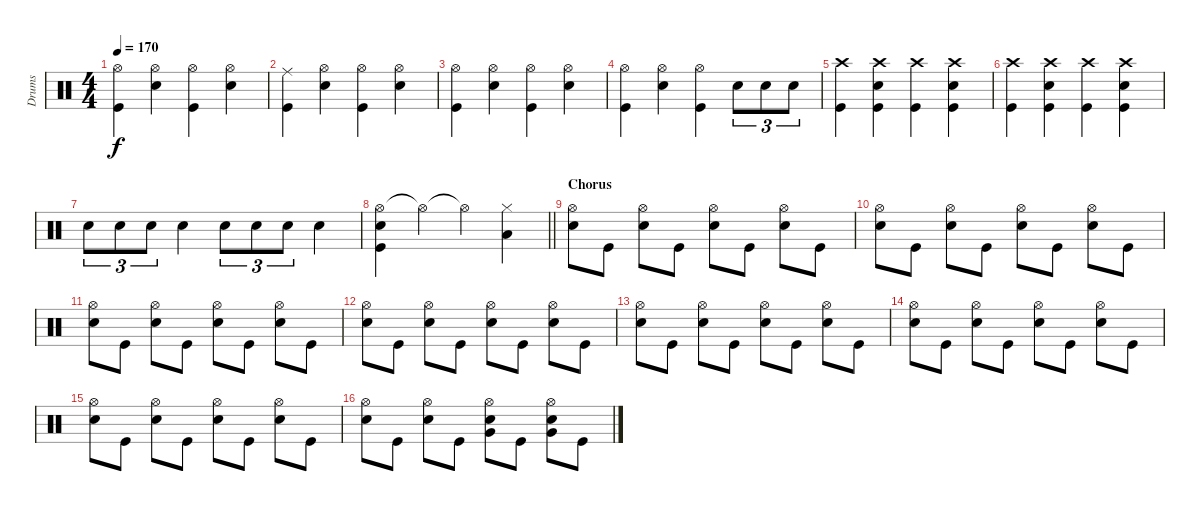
\track ("Drums" "Drums") {instrument percussion}
\staff {score}
\articulation defaults
\ts (4 4)
\tempo 170
\clef neutral
\ks c
("Hi-Hat (open)" "Kick (hit)").4{dy f} ("Hi-Hat (open)" "Snare (hit) 2").4 ("Hi-Hat (open)" "Kick (hit)").4 ("Hi-Hat (open)" "Snare (hit) 2").4 |
("Ride (middle)" "Kick (hit)").4 ("Hi-Hat (open)" "Snare (hit) 2").4 ("Hi-Hat (open)" "Kick (hit)").4 ("Hi-Hat (open)" "Snare (hit) 2").4 |
("Hi-Hat (open)" "Kick (hit)").4 ("Hi-Hat (open)" "Snare (hit) 2").4 ("Hi-Hat (open)" "Kick (hit)").4 ("Hi-Hat (open)" "Snare (hit) 2").4 |
("Hi-Hat (open)" "Kick (hit)").4 ("Hi-Hat (open)" "Snare (hit) 2").4 ("Hi-Hat (open)" "Kick (hit)").4 "Snare (hit) 2".8{tu (3 2)} "Snare (hit) 2".8{tu (3 2)} "Snare (hit) 2".8{tu (3 2)} |
("Crash high (hit)" "Kick (hit)").4 ("Crash high (hit)" "Snare (hit) 2" "Kick (hit)").4 ("Crash high (hit)" "Kick (hit)").4 ("Crash high (hit)" "Snare (hit) 2" "Kick (hit)").4 |
("Crash high (hit)" "Kick (hit)").4 ("Crash high (hit)" "Snare (hit) 2" "Kick (hit)").4 ("Crash high (hit)" "Kick (hit)").4 ("Crash high (hit)" "Snare (hit) 2" "Kick (hit)").4 |
"Snare (hit) 2".8{tu (3 2)} "Snare (hit) 2".8{tu (3 2)} "Snare (hit) 2".8{tu (3 2)} "Snare (hit) 2".4 "Snare (hit) 2".8{tu (3 2)} "Snare (hit) 2".8{tu (3 2)} "Snare (hit) 2".8{tu (3 2)} "Snare (hit) 2".4 |
\barLineRight lightlight
("Hi-Hat (open)" "Snare (hit) 2" "Kick (hit)").4{volume 16} "Hi-Hat (open)"{t}.4 "Hi-Hat (open)"{t}.4 ("Hi-Hat (closed)" "Low Tom (hit)").4 |
\section ("" "Chorus")
("Hi-Hat (open)" "Snare (hit) 2").8{volume 13} "Kick (hit)".8 ("Hi-Hat (open)" "Snare (hit) 2").8 "Kick (hit)".8 ("Hi-Hat (open)" "Snare (hit) 2").8 "Kick (hit)".8 ("Hi-Hat (open)" "Snare (hit) 2").8 "Kick (hit)".8 |
("Hi-Hat (open)" "Snare (hit) 2").8 "Kick (hit)".8 ("Hi-Hat (open)" "Snare (hit) 2").8 "Kick (hit)".8 ("Hi-Hat (open)" "Snare (hit) 2").8 "Kick (hit)".8 ("Hi-Hat (open)" "Snare (hit) 2").8 "Kick (hit)".8 |
("Hi-Hat (open)" "Snare (hit) 2").8 "Kick (hit)".8 ("Hi-Hat (open)" "Snare (hit) 2").8 "Kick (hit)".8 ("Hi-Hat (open)" "Snare (hit) 2").8 "Kick (hit)".8 ("Hi-Hat (open)" "Snare (hit) 2").8 "Kick (hit)".8 |
("Hi-Hat (open)" "Snare (hit) 2").8 "Kick (hit)".8 ("Hi-Hat (open)" "Snare (hit) 2").8 "Kick (hit)".8 ("Hi-Hat (open)" "Snare (hit) 2").8 "Kick (hit)".8 ("Hi-Hat (open)" "Snare (hit) 2").8 "Kick (hit)".8 |
("Hi-Hat (open)" "Snare (hit) 2").8 "Kick (hit)".8 ("Hi-Hat (open)" "Snare (hit) 2").8 "Kick (hit)".8 ("Hi-Hat (open)" "Snare (hit) 2").8 "Kick (hit)".8 ("Hi-Hat (open)" "Snare (hit) 2").8 "Kick (hit)".8 |
("Hi-Hat (open)" "Snare (hit) 2").8 "Kick (hit)".8 ("Hi-Hat (open)" "Snare (hit) 2").8 "Kick (hit)".8 ("Hi-Hat (open)" "Snare (hit) 2").8 "Kick (hit)".8 ("Hi-Hat (open)" "Snare (hit) 2").8 "Kick (hit)".8 |
("Hi-Hat (open)" "Snare (hit) 2").8 "Kick (hit)".8 ("Hi-Hat (open)" "Snare (hit) 2").8 "Kick (hit)".8 ("Hi-Hat (open)" "Snare (hit) 2").8 "Kick (hit)".8 ("Hi-Hat (open)" "Snare (hit) 2").8 "Kick (hit)".8 |
("Hi-Hat (open)" "Snare (hit) 2").8 "Kick (hit)".8 ("Hi-Hat (open)" "Snare (hit) 2").8 "Kick (hit)".8 ("Hi-Hat (open)" "Snare (hit) 2" "Very Low Tom (hit)").8 "Kick (hit)".8 ("Hi-Hat (open)" "Snare (hit) 2" "Very Low Tom (hit)").8 "Kick (hit)".8
